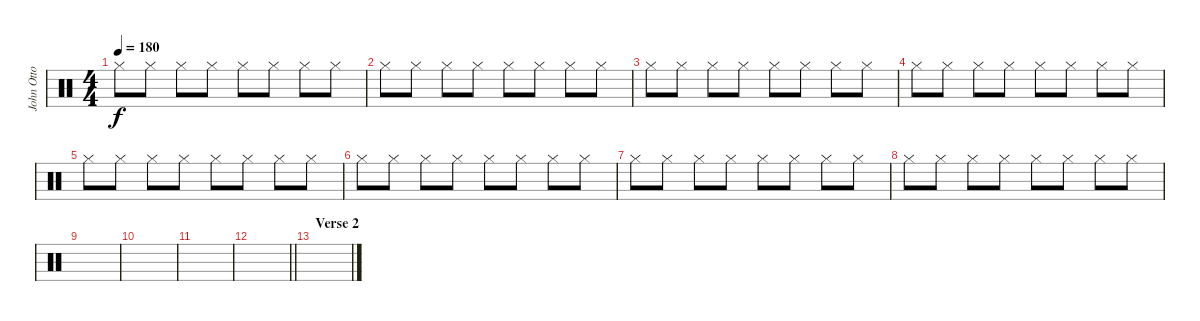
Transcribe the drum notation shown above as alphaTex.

\track ("John Otto" "John Otto") {instrument percussion}
\staff {score}
\articulation defaults
\ts (4 4)
\tempo 180
\clef neutral
\ks c "Hi-Hat (closed)".8{dy f} "Hi-Hat (closed)".8 "Hi-Hat (closed)".8 "Hi-Hat (closed)".8 "Hi-Hat (closed)".8 "Hi-Hat (closed)".8 "Hi-Hat (closed)".8 "Hi-Hat (closed)".8
|
"Hi-Hat (closed)".8 "Hi-Hat (closed)".8 "Hi-Hat (closed)".8 "Hi-Hat (closed)".8 "Hi-Hat (closed)".8 "Hi-Hat (closed)".8 "Hi-Hat (closed)".8 "Hi-Hat (closed)".8 |
"Hi-Hat (closed)".8 "Hi-Hat (closed)".8 "Hi-Hat (closed)".8 "Hi-Hat (closed)".8 "Hi-Hat (closed)".8 "Hi-Hat (closed)".8 "Hi-Hat (closed)".8 "Hi-Hat (closed)".8 |
"Hi-Hat (closed)".8 "Hi-Hat (closed)".8 "Hi-Hat (closed)".8 "Hi-Hat (closed)".8 "Hi-Hat (closed)".8 "Hi-Hat (closed)".8 "Hi-Hat (closed)".8 "Hi-Hat (closed)".8 |
"Hi-Hat (closed)".8 "Hi-Hat (closed)".8 "Hi-Hat (closed)".8 "Hi-Hat (closed)".8 "Hi-Hat (closed)".8 "Hi-Hat (closed)".8 "Hi-Hat (closed)".8 "Hi-Hat (closed)".8 |
"Hi-Hat (closed)".8 "Hi-Hat (closed)".8 "Hi-Hat (closed)".8 "Hi-Hat (closed)".8 "Hi-Hat (closed)".8 "Hi-Hat (closed)".8 "Hi-Hat (closed)".8 "Hi-Hat (closed)".8 |
"Hi-Hat (closed)".8 "Hi-Hat (closed)".8 "Hi-Hat (closed)".8 "Hi-Hat (closed)".8 "Hi-Hat (closed)".8 "Hi-Hat (closed)".8 "Hi-Hat (closed)".8 "Hi-Hat (closed)".8 |
"Hi-Hat (closed)".8 "Hi-Hat (closed)".8 "Hi-Hat (closed)".8 "Hi-Hat (closed)".8 "Hi-Hat (closed)".8 "Hi-Hat (closed)".8 "Hi-Hat (closed)".8 "Hi-Hat (closed)".8 |
|
|
|
\barLineRight lightlight
|
\section ("" "Verse 2")
